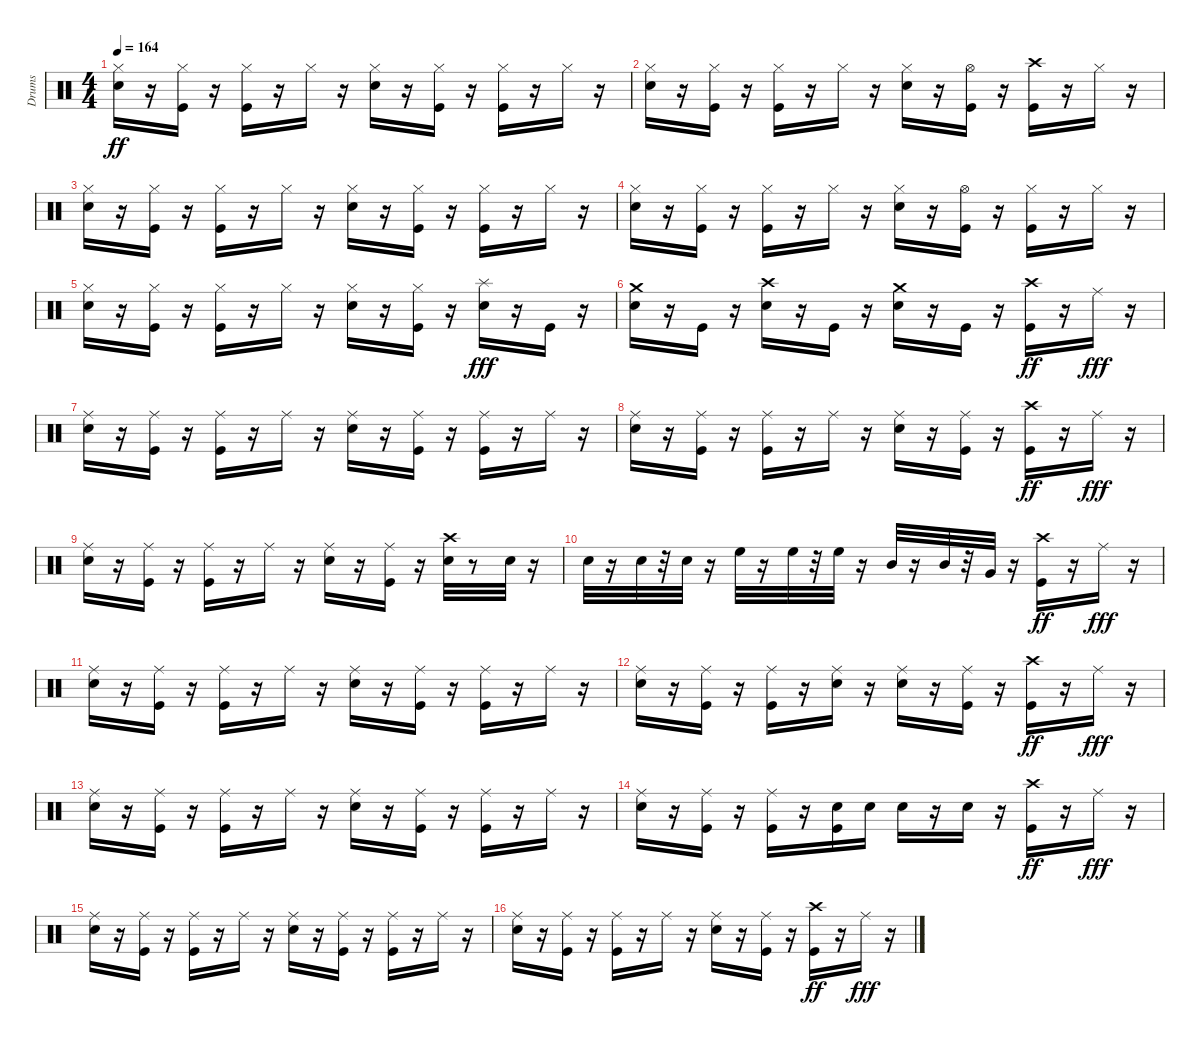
\track ("Drums" "Drums") {instrument percussion}
\staff {score}
\articulation defaults
\ts (4 4)
\tempo 164
\clef neutral
\ks c
("Electric Snare (hit)" "Hi-Hat (closed)").16{dy ff} r.16 ("Kick (hit)" "Hi-Hat (closed)").16 r.16 ("Kick (hit)" "Hi-Hat (closed)").16 r.16 "Hi-Hat (closed)".16 r.16 ("Electric Snare (hit)" "Hi-Hat (closed)").16 r.16 ("Kick (hit)" "Hi-Hat (closed)").16 r.16 ("Kick (hit)" "Hi-Hat (closed)").16 r.16 "Hi-Hat (closed)".16 r.16 |
("Electric Snare (hit)" "Hi-Hat (closed)").16 r.16 ("Kick (hit)" "Hi-Hat (closed)").16 r.16 ("Kick (hit)" "Hi-Hat (closed)").16 r.16 "Hi-Hat (closed)".16 r.16 ("Electric Snare (hit)" "Hi-Hat (closed)").16 r.16 ("Kick (hit)" "Hi-Hat (open)").16 r.16 ("Kick (hit)" "Crash high (hit)").16 r.16 "Hi-Hat (closed)".16 r.16 |
("Electric Snare (hit)" "Hi-Hat (closed)").16 r.16 ("Kick (hit)" "Hi-Hat (closed)").16 r.16 ("Kick (hit)" "Hi-Hat (closed)").16 r.16 "Hi-Hat (closed)".16 r.16 ("Electric Snare (hit)" "Hi-Hat (closed)").16 r.16 ("Kick (hit)" "Hi-Hat (closed)").16 r.16 ("Kick (hit)" "Hi-Hat (closed)").16 r.16 "Hi-Hat (closed)".16 r.16 |
("Electric Snare (hit)" "Hi-Hat (closed)").16 r.16 ("Kick (hit)" "Hi-Hat (closed)").16 r.16 ("Kick (hit)" "Hi-Hat (closed)").16 r.16 "Hi-Hat (closed)".16 r.16 ("Electric Snare (hit)" "Hi-Hat (closed)").16 r.16 ("Kick (hit)" "Hi-Hat (open)").16 r.16 ("Kick (hit)" "Hi-Hat (closed)").16 r.16 "Hi-Hat (closed)".16 r.16 |
("Electric Snare (hit)" "Hi-Hat (closed)").16 r.16 ("Kick (hit)" "Hi-Hat (closed)").16 r.16 ("Kick (hit)" "Hi-Hat (closed)").16 r.16 "Hi-Hat (closed)".16 r.16 ("Electric Snare (hit)" "Hi-Hat (closed)").16 r.16 ("Kick (hit)" "Hi-Hat (closed)").16 r.16 ("Splash (hit)" "Electric Snare (hit)").16{dy fff} r.16 "Kick (hit)".16 r.16 |
("Crash medium (hit)" "Electric Snare (hit)").16 r.16 "Kick (hit)".16 r.16 ("Crash high (hit)" "Electric Snare (hit)").16 r.16 "Kick (hit)".16 r.16 ("Crash medium (hit)" "Electric Snare (hit)").16 r.16 "Kick (hit)".16 r.16 ("Kick (hit)" "Crash high (hit)").16{dy ff} r.16 "Ride (middle)".16{dy fff} r.16 |
("Electric Snare (hit)" "Ride (middle)").16 r.16 ("Kick (hit)" "Ride (middle)").16 r.16 ("Kick (hit)" "Ride (middle)").16 r.16 "Ride (middle)".16 r.16 ("Electric Snare (hit)" "Ride (middle)").16 r.16 ("Kick (hit)" "Ride (middle)").16 r.16 ("Kick (hit)" "Ride (middle)").16 r.16 "Ride (middle)".16 r.16 |
("Electric Snare (hit)" "Ride (middle)").16 r.16 ("Kick (hit)" "Ride (middle)").16 r.16 ("Kick (hit)" "Ride (middle)").16 r.16 "Ride (middle)".16 r.16 ("Ride (middle)" "Electric Snare (hit)").16 r.16 ("Kick (hit)" "Ride (middle)").16 r.16 ("Kick (hit)" "Crash high (hit)").16{dy ff} r.16 "Ride (middle)".16{dy fff} r.16 |
("Electric Snare (hit)" "Ride (middle)").16 r.16 ("Kick (hit)" "Ride (middle)").16 r.16 ("Kick (hit)" "Ride (middle)").16 r.16 "Ride (middle)".16 r.16 ("Electric Snare (hit)" "Ride (middle)").16 r.16 ("Kick (hit)" "Ride (middle)").16 r.16 ("Electric Snare (hit)" "Crash high (hit)").32 r.8 "Electric Snare (hit)".32 r.16 |
"Electric Snare (hit)".32 r.16 "Electric Snare (hit)".32 r.32 "Electric Snare (hit)".32 r.16 "High Floor Tom (hit)".32 r.16 "High Floor Tom (hit)".32 r.32 "High Floor Tom (hit)".32 r.16 "Mid Tom (hit)".32 r.16 "Mid Tom (hit)".32 r.32 "Very Low Tom (hit)".32 r.16 ("Kick (hit)" "Crash high (hit)").16{dy ff} r.16 "Ride (middle)".16{dy fff} r.16 |
("Electric Snare (hit)" "Ride (middle)").16 r.16 ("Kick (hit)" "Ride (middle)").16 r.16 ("Kick (hit)" "Ride (middle)").16 r.16 "Ride (middle)".16 r.16 ("Electric Snare (hit)" "Ride (middle)").16 r.16 ("Kick (hit)" "Ride (middle)").16 r.16 ("Kick (hit)" "Ride (middle)").16 r.16 "Ride (middle)".16 r.16 |
("Electric Snare (hit)" "Ride (middle)").16 r.16 ("Kick (hit)" "Ride (middle)").16 r.16 ("Kick (hit)" "Ride (middle)").16 r.16 ("Ride (middle)" "Electric Snare (hit)").16 r.16 ("Ride (middle)" "Electric Snare (hit)").16 r.16 ("Kick (hit)" "Ride (middle)").16 r.16 ("Kick (hit)" "Crash high (hit)").16{dy ff} r.16 "Ride (middle)".16{dy fff} r.16 |
("Electric Snare (hit)" "Ride (middle)").16 r.16 ("Kick (hit)" "Ride (middle)").16 r.16 ("Kick (hit)" "Ride (middle)").16 r.16 "Ride (middle)".16 r.16 ("Electric Snare (hit)" "Ride (middle)").16 r.16 ("Kick (hit)" "Ride (middle)").16 r.16 ("Kick (hit)" "Ride (middle)").16 r.16 "Ride (middle)".16 r.16 |
("Electric Snare (hit)" "Ride (middle)").16 r.16 ("Kick (hit)" "Ride (middle)").16 r.16 ("Kick (hit)" "Ride (middle)").16 r.16 ("Electric Snare (hit)" "Kick (hit)").16 "Electric Snare (hit)".16 "Electric Snare (hit)".16 r.16 "Electric Snare (hit)".16 r.16 ("Kick (hit)" "Crash high (hit)").16{dy ff} r.16 "Ride (middle)".16{dy fff} r.16 |
("Electric Snare (hit)" "Ride (middle)").16 r.16 ("Kick (hit)" "Ride (middle)").16 r.16 ("Kick (hit)" "Ride (middle)").16 r.16 "Ride (middle)".16 r.16 ("Electric Snare (hit)" "Ride (middle)").16 r.16 ("Kick (hit)" "Ride (middle)").16 r.16 ("Kick (hit)" "Ride (middle)").16 r.16 "Ride (middle)".16 r.16 |
("Electric Snare (hit)" "Ride (middle)").16 r.16 ("Kick (hit)" "Ride (middle)").16 r.16 ("Kick (hit)" "Ride (middle)").16 r.16 "Ride (middle)".16 r.16 ("Ride (middle)" "Electric Snare (hit)").16 r.16 ("Kick (hit)" "Ride (middle)").16 r.16 ("Kick (hit)" "Crash high (hit)").16{dy ff} r.16 "Ride (middle)".16{dy fff} r.16
